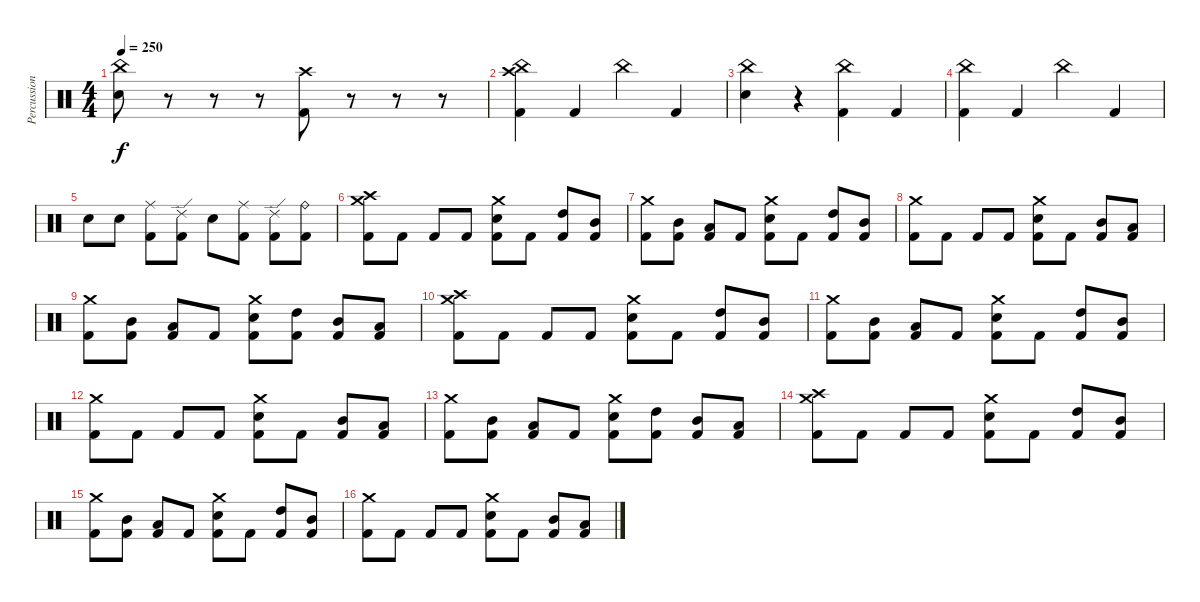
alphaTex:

\track ("Percussion" "Percussion") {instrument percussion}
\staff {score}
\articulation defaults
\ts (4 4)
\tempo 250
\clef neutral
\ks c
("China (hit)" "Electric Snare (hit)").8{dy f} r.8 r.8 r.8 ("Crash high (hit)" "Kick (hit) 2").8 r.8 r.8 r.8 |
("Crash high (hit)" "China (hit)" "Kick (hit) 2").4 "Kick (hit) 2".4 "China (hit)".4 "Kick (hit) 2".4 |
("China (hit)" "Electric Snare (hit)").4 r.4 ("China (hit)" "Kick (hit) 2").4 "Kick (hit) 2".4 |
("China (hit)" "Kick (hit) 2").4 "Kick (hit) 2".4 "China (hit)".4 "Kick (hit) 2".4 |
"Electric Snare (hit)".8 "Electric Snare (hit)".8 ("Ride (middle)" "Kick (hit) 2").8 ("Ride (edge) 2" "Kick (hit) 2").8 "Electric Snare (hit)".8 ("Ride (middle)" "Kick (hit) 2").8 ("Ride (edge) 2" "Kick (hit) 2").8 ("Ride (bell)" "Kick (hit) 2").8 |
("Crash high (hit)" "Crash medium (hit)" "Kick (hit) 2").8 "Kick (hit) 2".8 "Kick (hit) 2".8 "Kick (hit) 2".8 ("Crash medium (hit)" "Electric Snare (hit)" "Kick (hit) 2").8 "Kick (hit) 2".8 ("High Tom (hit)" "Kick (hit) 2").8 ("Mid Tom (hit)" "Kick (hit) 2").8 |
("Crash medium (hit)" "Kick (hit) 2").8 ("Mid Tom (hit)" "Kick (hit) 2").8 ("Low Tom (hit)" "Kick (hit) 2").8 "Kick (hit) 2".8 ("Crash medium (hit)" "Electric Snare (hit)" "Kick (hit) 2").8 "Kick (hit) 2".8 ("High Tom (hit)" "Kick (hit) 2").8 ("Mid Tom (hit)" "Kick (hit) 2").8 |
("Crash medium (hit)" "Kick (hit) 2").8 "Kick (hit) 2".8 "Kick (hit) 2".8 "Kick (hit) 2".8 ("Crash medium (hit)" "Electric Snare (hit)" "Kick (hit) 2").8 "Kick (hit) 2".8 ("Mid Tom (hit)" "Kick (hit) 2").8 ("Low Tom (hit)" "Kick (hit) 2").8 |
("Crash medium (hit)" "Kick (hit) 2").8 ("Mid Tom (hit)" "Kick (hit) 2").8 ("Low Tom (hit)" "Kick (hit) 2").8 "Kick (hit) 2".8 ("Crash medium (hit)" "Electric Snare (hit)" "Kick (hit) 2").8 ("High Tom (hit)" "Kick (hit) 2").8 ("Mid Tom (hit)" "Kick (hit) 2").8 ("Low Tom (hit)" "Kick (hit) 2").8 |
("Crash high (hit)" "Crash medium (hit)" "Kick (hit) 2").8 "Kick (hit) 2".8 "Kick (hit) 2".8 "Kick (hit) 2".8 ("Crash medium (hit)" "Electric Snare (hit)" "Kick (hit) 2").8 "Kick (hit) 2".8 ("High Tom (hit)" "Kick (hit) 2").8 ("Mid Tom (hit)" "Kick (hit) 2").8 |
("Crash medium (hit)" "Kick (hit) 2").8 ("Mid Tom (hit)" "Kick (hit) 2").8 ("Low Tom (hit)" "Kick (hit) 2").8 "Kick (hit) 2".8 ("Crash medium (hit)" "Electric Snare (hit)" "Kick (hit) 2").8 "Kick (hit) 2".8 ("High Tom (hit)" "Kick (hit) 2").8 ("Mid Tom (hit)" "Kick (hit) 2").8 |
("Crash medium (hit)" "Kick (hit) 2").8 "Kick (hit) 2".8 "Kick (hit) 2".8 "Kick (hit) 2".8 ("Crash medium (hit)" "Electric Snare (hit)" "Kick (hit) 2").8 "Kick (hit) 2".8 ("Mid Tom (hit)" "Kick (hit) 2").8 ("Low Tom (hit)" "Kick (hit) 2").8 |
("Crash medium (hit)" "Kick (hit) 2").8 ("Mid Tom (hit)" "Kick (hit) 2").8 ("Low Tom (hit)" "Kick (hit) 2").8 "Kick (hit) 2".8 ("Crash medium (hit)" "Electric Snare (hit)" "Kick (hit) 2").8 ("High Tom (hit)" "Kick (hit) 2").8 ("Mid Tom (hit)" "Kick (hit) 2").8 ("Low Tom (hit)" "Kick (hit) 2").8 |
("Crash high (hit)" "Crash medium (hit)" "Kick (hit) 2").8 "Kick (hit) 2".8 "Kick (hit) 2".8 "Kick (hit) 2".8 ("Crash medium (hit)" "Electric Snare (hit)" "Kick (hit) 2").8 "Kick (hit) 2".8 ("High Tom (hit)" "Kick (hit) 2").8 ("Mid Tom (hit)" "Kick (hit) 2").8 |
("Crash medium (hit)" "Kick (hit) 2").8 ("Mid Tom (hit)" "Kick (hit) 2").8 ("Low Tom (hit)" "Kick (hit) 2").8 "Kick (hit) 2".8 ("Crash medium (hit)" "Electric Snare (hit)" "Kick (hit) 2").8 "Kick (hit) 2".8 ("High Tom (hit)" "Kick (hit) 2").8 ("Mid Tom (hit)" "Kick (hit) 2").8 |
("Crash medium (hit)" "Kick (hit) 2").8 "Kick (hit) 2".8 "Kick (hit) 2".8 "Kick (hit) 2".8 ("Crash medium (hit)" "Electric Snare (hit)" "Kick (hit) 2").8 "Kick (hit) 2".8 ("Mid Tom (hit)" "Kick (hit) 2").8 ("Low Tom (hit)" "Kick (hit) 2").8
